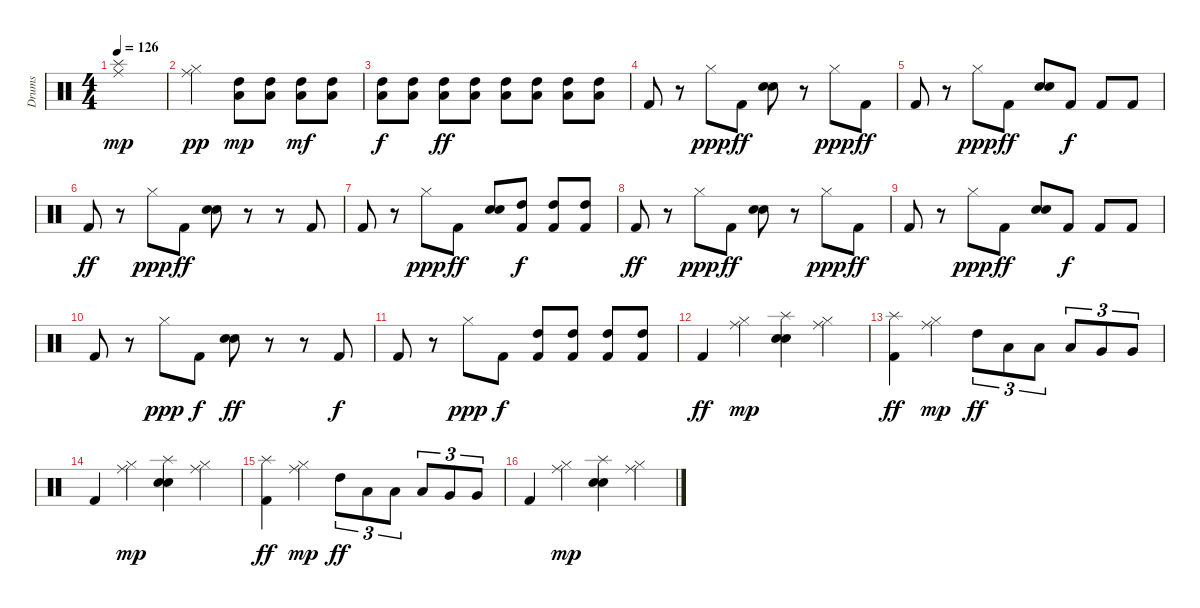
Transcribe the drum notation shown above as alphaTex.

\track ("Drums" "Drums") {instrument percussion}
\staff {score}
\articulation defaults
\ts (4 4)
\tempo 126
\clef neutral
\ks c
("Splash (hit)" "Ride (middle)").1{dy mp} |
("Hi-Hat (closed)" "Ride (middle)").2{dy pp} ("High Tom (hit)" "Low Tom (hit)").8{dy mp volume 2} ("High Tom (hit)" "Low Tom (hit)").8{volume 3} ("High Tom (hit)" "Low Tom (hit)").8{dy mf volume 4} ("High Tom (hit)" "Low Tom (hit)").8{volume 5} |
("High Tom (hit)" "Low Tom (hit)").8{dy f volume 6} ("High Tom (hit)" "Low Tom (hit)").8{volume 7} ("High Tom (hit)" "Low Tom (hit)").8{dy ff volume 8} ("High Tom (hit)" "Low Tom (hit)").8{volume 9} ("High Tom (hit)" "Low Tom (hit)").8{volume 10} ("High Tom (hit)" "Low Tom (hit)").8{volume 11} ("High Tom (hit)" "Low Tom (hit)").8{volume 12} ("High Tom (hit)" "Low Tom (hit)").8 |
"Kick (hit) 2".8 r.8 "Hi-Hat (closed)".8{dy ppp} "Kick (hit) 2".8{dy ff} ("Electric Snare (hit)" "Electric Snare (hit)").8 r.8 "Hi-Hat (closed)".8{dy ppp} "Kick (hit) 2".8{dy ff} |
"Kick (hit) 2".8 r.8 "Hi-Hat (closed)".8{dy ppp} "Kick (hit) 2".8{dy ff} ("Electric Snare (hit)" "Electric Snare (hit)").8 "Kick (hit) 2".8{dy f} "Kick (hit) 2".8 "Kick (hit) 2".8 |
"Kick (hit) 2".8{dy ff} r.8 "Hi-Hat (closed)".8{dy ppp} "Kick (hit) 2".8{dy ff} ("Electric Snare (hit)" "Electric Snare (hit)").8 r.8 r.8 "Kick (hit) 2".8 |
"Kick (hit) 2".8 r.8 "Hi-Hat (closed)".8{dy ppp} "Kick (hit) 2".8{dy ff} ("Electric Snare (hit)" "Electric Snare (hit)").8 ("High Tom (hit)" "Kick (hit) 2").8{dy f} ("High Tom (hit)" "Kick (hit) 2").8 ("High Tom (hit)" "Kick (hit) 2").8 |
"Kick (hit) 2".8{dy ff} r.8 "Hi-Hat (closed)".8{dy ppp} "Kick (hit) 2".8{dy ff} ("Electric Snare (hit)" "Electric Snare (hit)").8 r.8 "Hi-Hat (closed)".8{dy ppp} "Kick (hit) 2".8{dy ff} |
"Kick (hit) 2".8 r.8 "Hi-Hat (closed)".8{dy ppp} "Kick (hit) 2".8{dy ff} ("Electric Snare (hit)" "Electric Snare (hit)").8 "Kick (hit) 2".8{dy f} "Kick (hit) 2".8 "Kick (hit) 2".8 |
"Kick (hit) 2".8 r.8 "Hi-Hat (closed)".8{dy ppp} "Kick (hit) 2".8{dy f} ("Electric Snare (hit)" "Electric Snare (hit)").8{dy ff} r.8 r.8 "Kick (hit) 2".8{dy f} |
"Kick (hit) 2".8 r.8 "Hi-Hat (closed)".8{dy ppp} "Kick (hit) 2".8{dy f} ("High Tom (hit)" "Kick (hit) 2").8 ("High Tom (hit)" "Kick (hit) 2").8 ("High Tom (hit)" "Kick (hit) 2").8 ("High Tom (hit)" "Kick (hit) 2").8 |
"Kick (hit) 2".4{dy ff} ("Ride (middle)" "Hi-Hat (closed)").4{dy mp} ("Electric Snare (hit)" "Electric Snare (hit)" "Splash (hit)").4 ("Ride (middle)" "Hi-Hat (closed)").4 |
("Splash (hit)" "Kick (hit) 2").4{dy ff} ("Ride (middle)" "Hi-Hat (closed)").4{dy mp} "High Tom (hit)".8{tu (3 2) dy ff} "Low Tom (hit)".8{tu (3 2)} "Low Tom (hit)".8{tu (3 2)} "Low Tom (hit)".8{tu (3 2)} "Very Low Tom (hit)".8{tu (3 2)} "Very Low Tom (hit)".8{tu (3 2)} |
"Kick (hit) 2".4 ("Ride (middle)" "Hi-Hat (closed)").4{dy mp} ("Electric Snare (hit)" "Electric Snare (hit)" "Splash (hit)").4 ("Ride (middle)" "Hi-Hat (closed)").4 |
("Splash (hit)" "Kick (hit) 2").4{dy ff} ("Ride (middle)" "Hi-Hat (closed)").4{dy mp} "High Tom (hit)".8{tu (3 2) dy ff} "Low Tom (hit)".8{tu (3 2)} "Low Tom (hit)".8{tu (3 2)} "Low Tom (hit)".8{tu (3 2)} "Very Low Tom (hit)".8{tu (3 2)} "Very Low Tom (hit)".8{tu (3 2)} |
"Kick (hit) 2".4 ("Ride (middle)" "Hi-Hat (closed)").4{dy mp} ("Electric Snare (hit)" "Electric Snare (hit)" "Splash (hit)").4 ("Ride (middle)" "Hi-Hat (closed)").4
